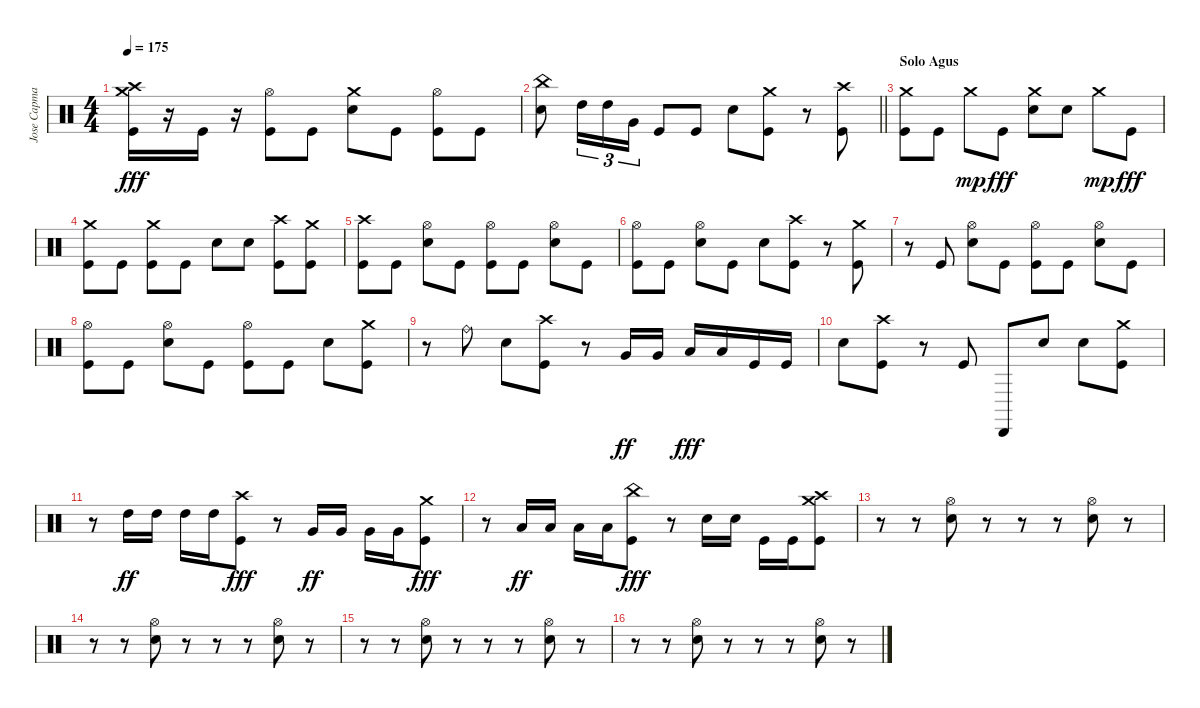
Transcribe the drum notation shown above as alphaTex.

\track ("Jose Capmany" "Jose Capma") {instrument percussion}
\staff {score}
\articulation defaults
\ts (4 4)
\tempo 175
\clef neutral
\ks c
("Crash high (hit)" "Crash medium (hit)" "Kick (hit)").16{dy fff} r.16 "Kick (hit)".16 r.16 ("Hi-Hat (open)" "Kick (hit)").8 "Kick (hit)".8 ("Crash medium (hit)" "Snare (hit) 2").8 "Kick (hit)".8 ("Hi-Hat (open)" "Kick (hit)").8 "Kick (hit)".8 |
\barLineRight lightlight
("China (hit)" "Snare (hit) 2").8 "High Tom (hit)".16{tu (3 2)} "High Tom (hit)".16{tu (3 2)} "Very Low Tom (hit)".16{tu (3 2)} "Kick (hit)".8 "Kick (hit)".8 "Snare (hit) 2".8 ("Crash medium (hit)" "Kick (hit)").8 r.8 ("Crash high (hit)" "Kick (hit)").8 |
\section ("" "Solo Agus")
("Crash medium (hit)" "Kick (hit)").8 "Kick (hit)".8 "Crash medium (hit)".8{dy mp} "Kick (hit)".8{dy fff} ("Crash medium (hit)" "Snare (hit) 2").8 "Snare (hit) 2".8 "Crash medium (hit)".8{dy mp} "Kick (hit)".8{dy fff} |
("Crash medium (hit)" "Kick (hit)").8 "Kick (hit)".8 ("Crash medium (hit)" "Kick (hit)").8 "Kick (hit)".8 "Snare (hit) 2".8 "Snare (hit) 2".8 ("Crash high (hit)" "Kick (hit)").8 ("Crash medium (hit)" "Kick (hit)").8 |
("Crash high (hit)" "Kick (hit)").8 "Kick (hit)".8 ("Hi-Hat (open)" "Snare (hit) 2").8 "Kick (hit)".8 ("Hi-Hat (open)" "Kick (hit)").8 "Kick (hit)".8 ("Hi-Hat (open)" "Snare (hit) 2").8 "Kick (hit)".8 |
("Hi-Hat (open)" "Kick (hit)").8 "Kick (hit)".8 ("Hi-Hat (open)" "Snare (hit) 2").8 "Kick (hit)".8 "Snare (hit) 2".8 ("Crash high (hit)" "Kick (hit)").8 r.8 ("Crash medium (hit)" "Kick (hit)").8 |
r.8 "Kick (hit)".8 ("Hi-Hat (open)" "Snare (hit) 2").8 "Kick (hit)".8 ("Hi-Hat (open)" "Kick (hit)").8 "Kick (hit)".8 ("Hi-Hat (open)" "Snare (hit) 2").8 "Kick (hit)".8 |
("Hi-Hat (open)" "Kick (hit)").8 "Kick (hit)".8 ("Hi-Hat (open)" "Snare (hit) 2").8 "Kick (hit)".8 ("Hi-Hat (open)" "Kick (hit)").8 "Kick (hit)".8 "Snare (hit) 2".8 ("Crash medium (hit)" "Kick (hit)").8 |
r.8 "Ride (bell)".8 "Snare (hit) 2".8 ("Crash high (hit)" "Kick (hit)").8 r.8 "Very Low Tom (hit)".16{dy ff} "Very Low Tom (hit)".16 "Low Floor Tom (hit)".16{dy fff} "Low Floor Tom (hit)".16 "Kick (hit)".16 "Kick (hit)".16 |
"Snare (hit) 2".8 ("Crash high (hit)" "Kick (hit)").8 r.8 "Kick (hit)".8 "Cabasa (hit)".8 "Snare (hit) 2".8 "Snare (hit) 2".8 ("Crash medium (hit)" "Kick (hit)").8 |
r.8 "High Tom (hit)".16{dy ff} "High Tom (hit)".16 "High Tom (hit)".16 "High Tom (hit)".16 ("Crash high (hit)" "Kick (hit)").8{dy fff} r.8 "Very Low Tom (hit)".16{dy ff} "Very Low Tom (hit)".16 "Very Low Tom (hit)".16 "Very Low Tom (hit)".16 ("Crash medium (hit)" "Kick (hit)").8{dy fff} |
r.8 "Low Floor Tom (hit)".16{dy ff} "Low Floor Tom (hit)".16 "Low Floor Tom (hit)".16 "Low Floor Tom (hit)".16 ("China (hit)" "Kick (hit)").8{dy fff} r.8 "Snare (hit) 2".16 "Snare (hit) 2".16 "Kick (hit)".16 "Kick (hit)".16 ("Crash high (hit)" "Crash medium (hit)" "Kick (hit)").8 |
r.8 r.8 ("Hi-Hat (open)" "Snare (hit) 2").8 r.8 r.8 r.8 ("Hi-Hat (open)" "Snare (hit) 2").8 r.8 |
r.8 r.8 ("Hi-Hat (open)" "Snare (hit) 2").8 r.8 r.8 r.8 ("Hi-Hat (open)" "Snare (hit) 2").8 r.8 |
r.8 r.8 ("Hi-Hat (open)" "Snare (hit) 2").8 r.8 r.8 r.8 ("Hi-Hat (open)" "Snare (hit) 2").8 r.8 |
r.8 r.8 ("Hi-Hat (open)" "Snare (hit) 2").8 r.8 r.8 r.8 ("Hi-Hat (open)" "Snare (hit) 2").8 r.8
